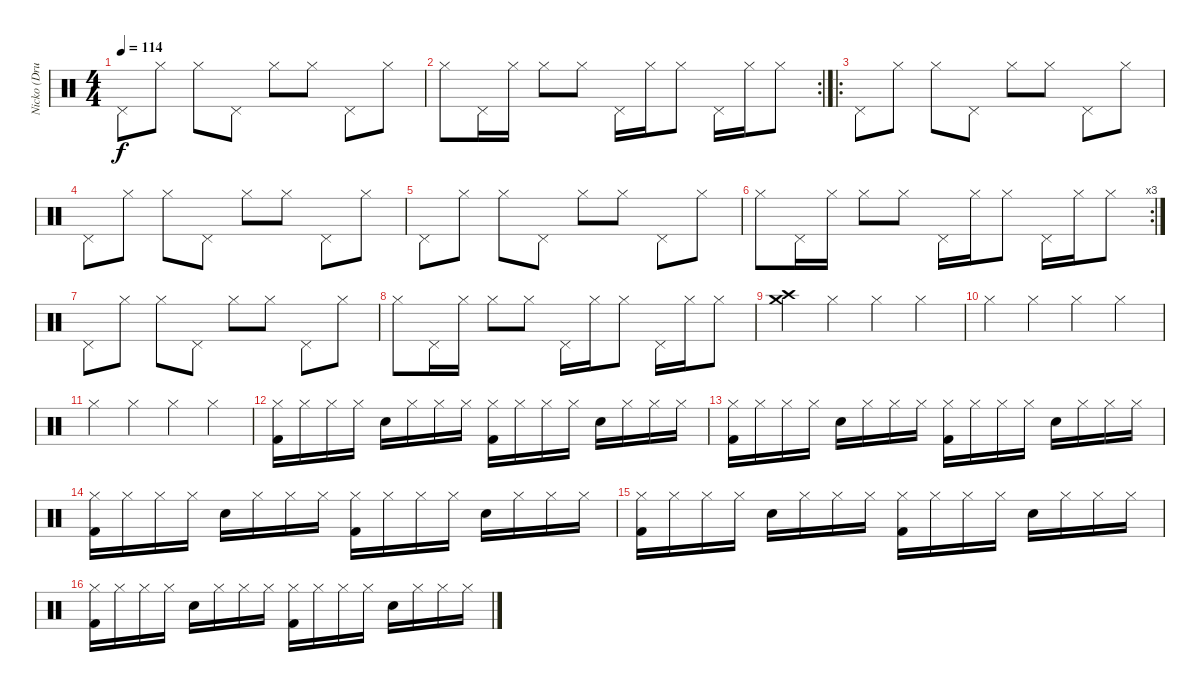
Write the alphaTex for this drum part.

\track ("Nicko (Drums)" "Nicko (Dru") {instrument percussion}
\staff {score}
\articulation defaults
\ts (4 4)
\tempo 114
\clef neutral
\ks c "Pedal Hi-Hat (hit)".8{dy f} "Hi-Hat (closed)".8 "Hi-Hat (closed)".8 "Pedal Hi-Hat (hit)".8 "Hi-Hat (closed)".8 "Hi-Hat (closed)".8 "Pedal Hi-Hat (hit)".8 "Hi-Hat (closed)".8
|
\rc 2 "Hi-Hat (closed)".8 "Pedal Hi-Hat (hit)".16 "Hi-Hat (closed)".16 "Hi-Hat (closed)".8 "Hi-Hat (closed)".8 "Pedal Hi-Hat (hit)".16 "Hi-Hat (closed)".16 "Hi-Hat (closed)".8 "Pedal Hi-Hat (hit)".16 "Hi-Hat (closed)".16 "Hi-Hat (closed)".8
|
\ro "Pedal Hi-Hat (hit)".8 "Hi-Hat (closed)".8 "Hi-Hat (closed)".8 "Pedal Hi-Hat (hit)".8 "Hi-Hat (closed)".8 "Hi-Hat (closed)".8 "Pedal Hi-Hat (hit)".8 "Hi-Hat (closed)".8
|
"Pedal Hi-Hat (hit)".8 "Hi-Hat (closed)".8 "Hi-Hat (closed)".8 "Pedal Hi-Hat (hit)".8 "Hi-Hat (closed)".8 "Hi-Hat (closed)".8 "Pedal Hi-Hat (hit)".8 "Hi-Hat (closed)".8 |
"Pedal Hi-Hat (hit)".8 "Hi-Hat (closed)".8 "Hi-Hat (closed)".8 "Pedal Hi-Hat (hit)".8 "Hi-Hat (closed)".8 "Hi-Hat (closed)".8 "Pedal Hi-Hat (hit)".8 "Hi-Hat (closed)".8 |
\rc 3 "Hi-Hat (closed)".8 "Pedal Hi-Hat (hit)".16 "Hi-Hat (closed)".16 "Hi-Hat (closed)".8 "Hi-Hat (closed)".8 "Pedal Hi-Hat (hit)".16 "Hi-Hat (closed)".16 "Hi-Hat (closed)".8 "Pedal Hi-Hat (hit)".16 "Hi-Hat (closed)".16 "Hi-Hat (closed)".8
|
"Pedal Hi-Hat (hit)".8 "Hi-Hat (closed)".8 "Hi-Hat (closed)".8 "Pedal Hi-Hat (hit)".8 "Hi-Hat (closed)".8 "Hi-Hat (closed)".8 "Pedal Hi-Hat (hit)".8 "Hi-Hat (closed)".8 |
"Hi-Hat (closed)".8 "Pedal Hi-Hat (hit)".16 "Hi-Hat (closed)".16 "Hi-Hat (closed)".8 "Hi-Hat (closed)".8 "Pedal Hi-Hat (hit)".16 "Hi-Hat (closed)".16 "Hi-Hat (closed)".8 "Pedal Hi-Hat (hit)".16 "Hi-Hat (closed)".16 "Hi-Hat (closed)".8 |
("Crash high (hit)" "Crash medium (hit)").4 "Hi-Hat (closed)".4 "Hi-Hat (closed)".4 "Hi-Hat (closed)".4 |
"Hi-Hat (closed)".4 "Hi-Hat (closed)".4 "Hi-Hat (closed)".4 "Hi-Hat (closed)".4 |
"Hi-Hat (closed)".4 "Hi-Hat (closed)".4 "Hi-Hat (closed)".4 "Hi-Hat (closed)".4 |
("Hi-Hat (closed)" "Kick (hit) 2").16 "Hi-Hat (closed)".16 "Hi-Hat (closed)".16 "Hi-Hat (closed)".16 "Snare (hit) 2".16 "Hi-Hat (closed)".16 "Hi-Hat (closed)".16 "Hi-Hat (closed)".16 ("Hi-Hat (closed)" "Kick (hit) 2").16 "Hi-Hat (closed)".16 "Hi-Hat (closed)".16 "Hi-Hat (closed)".16 "Snare (hit) 2".16 "Hi-Hat (closed)".16 "Hi-Hat (closed)".16 "Hi-Hat (closed)".16 |
("Hi-Hat (closed)" "Kick (hit) 2").16 "Hi-Hat (closed)".16 "Hi-Hat (closed)".16 "Hi-Hat (closed)".16 "Snare (hit) 2".16 "Hi-Hat (closed)".16 "Hi-Hat (closed)".16 "Hi-Hat (closed)".16 ("Hi-Hat (closed)" "Kick (hit) 2").16 "Hi-Hat (closed)".16 "Hi-Hat (closed)".16 "Hi-Hat (closed)".16 "Snare (hit) 2".16 "Hi-Hat (closed)".16 "Hi-Hat (closed)".16 "Hi-Hat (closed)".16 |
("Hi-Hat (closed)" "Kick (hit) 2").16 "Hi-Hat (closed)".16 "Hi-Hat (closed)".16 "Hi-Hat (closed)".16 "Snare (hit) 2".16 "Hi-Hat (closed)".16 "Hi-Hat (closed)".16 "Hi-Hat (closed)".16 ("Hi-Hat (closed)" "Kick (hit) 2").16 "Hi-Hat (closed)".16 "Hi-Hat (closed)".16 "Hi-Hat (closed)".16 "Snare (hit) 2".16 "Hi-Hat (closed)".16 "Hi-Hat (closed)".16 "Hi-Hat (closed)".16 |
("Hi-Hat (closed)" "Kick (hit) 2").16 "Hi-Hat (closed)".16 "Hi-Hat (closed)".16 "Hi-Hat (closed)".16 "Snare (hit) 2".16 "Hi-Hat (closed)".16 "Hi-Hat (closed)".16 "Hi-Hat (closed)".16 ("Hi-Hat (closed)" "Kick (hit) 2").16 "Hi-Hat (closed)".16 "Hi-Hat (closed)".16 "Hi-Hat (closed)".16 "Snare (hit) 2".16 "Hi-Hat (closed)".16 "Hi-Hat (closed)".16 "Hi-Hat (closed)".16 |
("Hi-Hat (closed)" "Kick (hit) 2").16 "Hi-Hat (closed)".16 "Hi-Hat (closed)".16 "Hi-Hat (closed)".16 "Snare (hit) 2".16 "Hi-Hat (closed)".16 "Hi-Hat (closed)".16 "Hi-Hat (closed)".16 ("Hi-Hat (closed)" "Kick (hit) 2").16 "Hi-Hat (closed)".16 "Hi-Hat (closed)".16 "Hi-Hat (closed)".16 "Snare (hit) 2".16 "Hi-Hat (closed)".16 "Hi-Hat (closed)".16 "Hi-Hat (closed)".16
